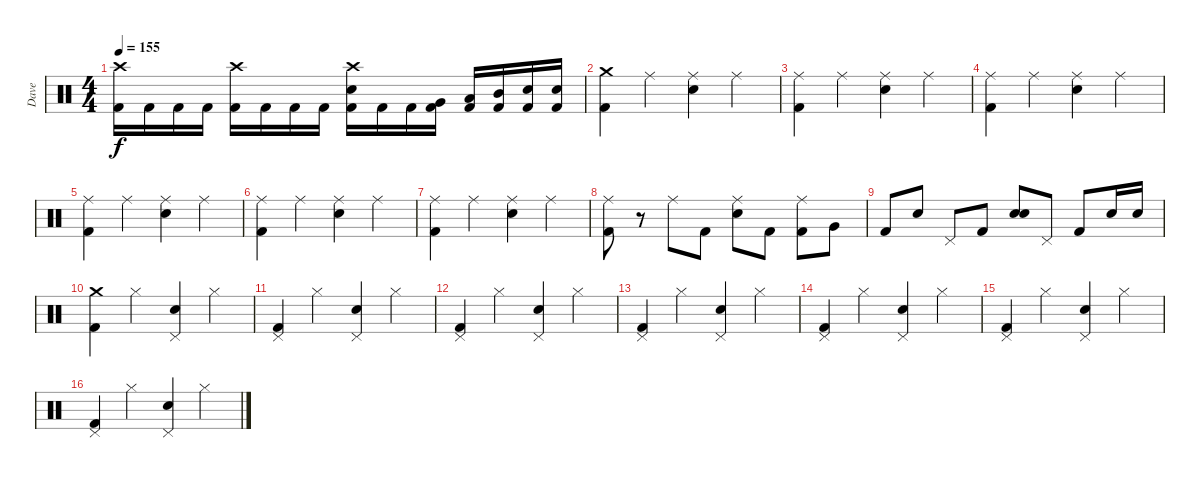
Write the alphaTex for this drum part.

\track ("Dave" "Dave") {instrument percussion}
\staff {score}
\articulation defaults
\ts (4 4)
\tempo 155
\clef neutral
\ks c
("Crash high (hit)" "Kick (hit) 2").16{dy f} "Kick (hit) 2".16 "Kick (hit) 2".16 "Kick (hit) 2".16 ("Crash high (hit)" "Kick (hit) 2").16 "Kick (hit) 2".16 "Kick (hit) 2".16 "Kick (hit) 2".16 ("Crash high (hit)" "Snare (hit) 2" "Kick (hit) 2").16 "Kick (hit) 2".16 "Kick (hit) 2".16 ("Very Low Tom (hit)" "Kick (hit) 2").16 ("Low Tom (hit)" "Kick (hit) 2").16 ("Mid Tom (hit)" "Kick (hit) 2").16 ("Snare (hit) 2" "Kick (hit) 2").16 ("Snare (hit) 2" "Kick (hit) 2").16 |
("Crash medium (hit)" "Kick (hit) 2").4 "Ride (middle)".4 ("Ride (middle)" "Snare (hit) 2").4 "Ride (middle)".4 |
("Ride (middle)" "Kick (hit) 2").4 "Ride (middle)".4 ("Ride (middle)" "Snare (hit) 2").4 "Ride (middle)".4 |
("Ride (middle)" "Kick (hit) 2").4 "Ride (middle)".4 ("Ride (middle)" "Snare (hit) 2").4 "Ride (middle)".4 |
("Ride (middle)" "Kick (hit) 2").4 "Ride (middle)".4 ("Ride (middle)" "Snare (hit) 2").4 "Ride (middle)".4 |
("Ride (middle)" "Kick (hit) 2").4 "Ride (middle)".4 ("Ride (middle)" "Snare (hit) 2").4 "Ride (middle)".4 |
("Ride (middle)" "Kick (hit) 2").4 "Ride (middle)".4 ("Ride (middle)" "Snare (hit) 2").4 "Ride (middle)".4 |
("Ride (middle)" "Kick (hit) 2").8 r.8 "Ride (middle)".8 "Kick (hit) 2".8 ("Ride (middle)" "Snare (hit) 2").8 "Kick (hit) 2".8 ("Ride (middle)" "Kick (hit) 2").8 "Very Low Tom (hit)".8 |
"Kick (hit) 2".8 "Snare (hit) 2".8 "Pedal Hi-Hat (hit)".8 "Kick (hit) 2".8 ("Snare (hit) 2" "Snare (hit) 2").8{bd 480} "Pedal Hi-Hat (hit)".8 "Kick (hit) 2".8 "Snare (hit) 2".16 "Snare (hit) 2".16 |
("Crash medium (hit)" "Kick (hit) 2").4 "Hi-Hat (closed)".4 ("Pedal Hi-Hat (hit)" "Snare (hit) 2").4 "Hi-Hat (closed)".4 |
("Pedal Hi-Hat (hit)" "Kick (hit) 2").4 "Hi-Hat (closed)".4 ("Pedal Hi-Hat (hit)" "Snare (hit) 2").4 "Hi-Hat (closed)".4 |
("Pedal Hi-Hat (hit)" "Kick (hit) 2").4 "Hi-Hat (closed)".4 ("Pedal Hi-Hat (hit)" "Snare (hit) 2").4 "Hi-Hat (closed)".4 |
("Pedal Hi-Hat (hit)" "Kick (hit) 2").4 "Hi-Hat (closed)".4 ("Pedal Hi-Hat (hit)" "Snare (hit) 2").4 "Hi-Hat (closed)".4 |
("Pedal Hi-Hat (hit)" "Kick (hit) 2").4 "Hi-Hat (closed)".4 ("Pedal Hi-Hat (hit)" "Snare (hit) 2").4 "Hi-Hat (closed)".4 |
("Pedal Hi-Hat (hit)" "Kick (hit) 2").4 "Hi-Hat (closed)".4 ("Pedal Hi-Hat (hit)" "Snare (hit) 2").4 "Hi-Hat (closed)".4 |
("Pedal Hi-Hat (hit)" "Kick (hit) 2").4 "Hi-Hat (closed)".4 ("Pedal Hi-Hat (hit)" "Snare (hit) 2").4 "Hi-Hat (closed)".4
